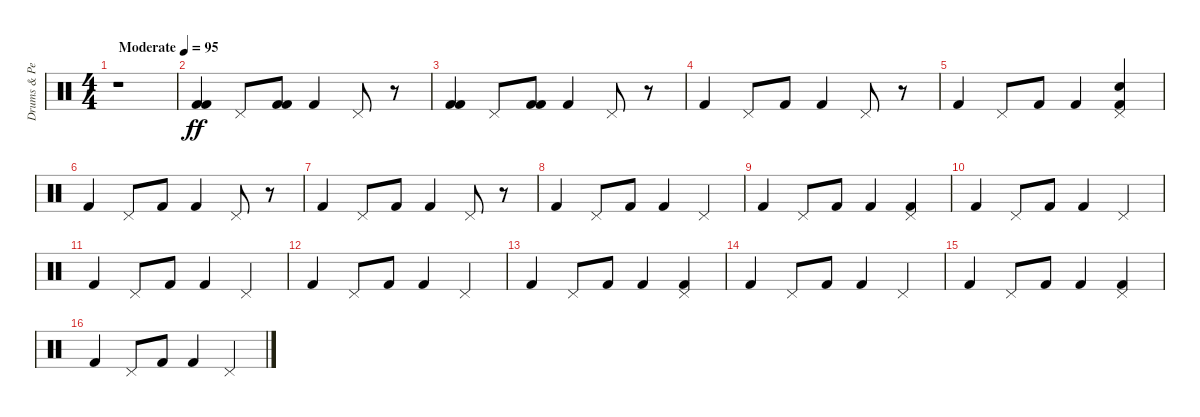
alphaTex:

\track ("Drums & Percussion" "Drums & Pe") {instrument percussion}
\staff {score}
\articulation defaults
\ts (4 4)
\tempo (95 "Moderate")
\clef neutral
\ks c
r.1{dy ff} |
("Kick (hit) 2" "Kick (hit) 2").4{balance 8} "Pedal Hi-Hat (hit)".8 ("Kick (hit) 2" "Kick (hit) 2").8 "Kick (hit) 2".4 "Pedal Hi-Hat (hit)".8 r.8 |
("Kick (hit) 2" "Kick (hit) 2").4 "Pedal Hi-Hat (hit)".8 ("Kick (hit) 2" "Kick (hit) 2").8 "Kick (hit) 2".4 "Pedal Hi-Hat (hit)".8 r.8 |
"Kick (hit) 2".4 "Pedal Hi-Hat (hit)".8 "Kick (hit) 2".8 "Kick (hit) 2".4 "Pedal Hi-Hat (hit)".8 r.8 |
"Kick (hit) 2".4 "Pedal Hi-Hat (hit)".8 "Kick (hit) 2".8 "Kick (hit) 2".4 ("Kick (hit) 2" "Snare (hit) 2" "Pedal Hi-Hat (hit)").4 |
"Kick (hit) 2".4 "Pedal Hi-Hat (hit)".8 "Kick (hit) 2".8 "Kick (hit) 2".4 "Pedal Hi-Hat (hit)".8 r.8 |
"Kick (hit) 2".4 "Pedal Hi-Hat (hit)".8 "Kick (hit) 2".8 "Kick (hit) 2".4 "Pedal Hi-Hat (hit)".8 r.8 |
"Kick (hit) 2".4 "Pedal Hi-Hat (hit)".8 "Kick (hit) 2".8 "Kick (hit) 2".4 "Pedal Hi-Hat (hit)".4 |
"Kick (hit) 2".4 "Pedal Hi-Hat (hit)".8 "Kick (hit) 2".8 "Kick (hit) 2".4 ("Kick (hit) 2" "Pedal Hi-Hat (hit)").4 |
"Kick (hit) 2".4 "Pedal Hi-Hat (hit)".8 "Kick (hit) 2".8 "Kick (hit) 2".4 "Pedal Hi-Hat (hit)".4 |
"Kick (hit) 2".4 "Pedal Hi-Hat (hit)".8 "Kick (hit) 2".8 "Kick (hit) 2".4 "Pedal Hi-Hat (hit)".4 |
"Kick (hit) 2".4 "Pedal Hi-Hat (hit)".8 "Kick (hit) 2".8 "Kick (hit) 2".4 "Pedal Hi-Hat (hit)".4 |
"Kick (hit) 2".4 "Pedal Hi-Hat (hit)".8 "Kick (hit) 2".8 "Kick (hit) 2".4 ("Kick (hit) 2" "Pedal Hi-Hat (hit)").4 |
"Kick (hit) 2".4 "Pedal Hi-Hat (hit)".8 "Kick (hit) 2".8 "Kick (hit) 2".4 "Pedal Hi-Hat (hit)".4 |
"Kick (hit) 2".4 "Pedal Hi-Hat (hit)".8 "Kick (hit) 2".8 "Kick (hit) 2".4 ("Kick (hit) 2" "Pedal Hi-Hat (hit)").4 |
"Kick (hit) 2".4 "Pedal Hi-Hat (hit)".8 "Kick (hit) 2".8 "Kick (hit) 2".4 "Pedal Hi-Hat (hit)".4
